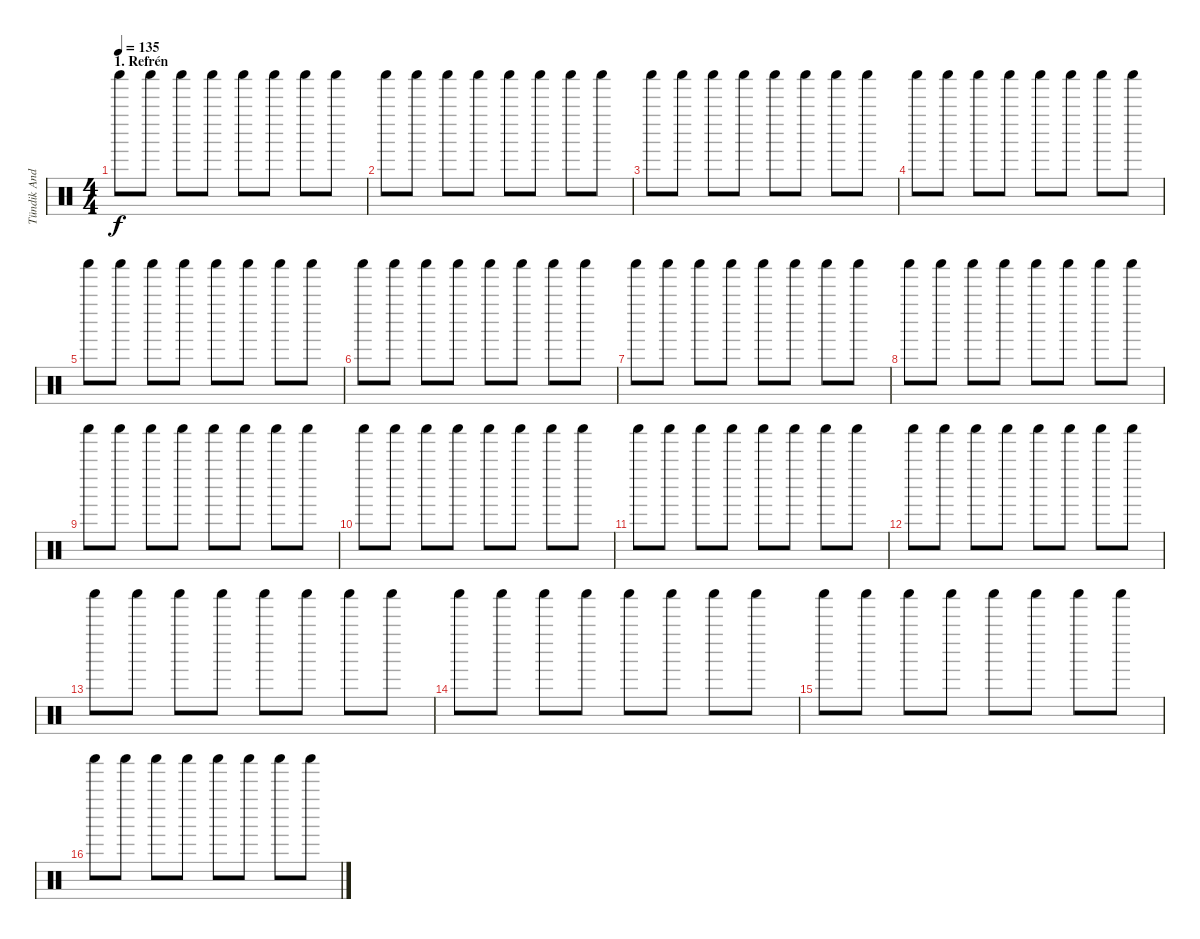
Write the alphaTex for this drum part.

\track ("Tündik András - Shaker" "Tündik And") {instrument percussion}
\staff {score}
\articulation defaults
\ts (4 4)
\section ("" "1. Refrén")
\tempo 135
\clef neutral
\ks c "Shaker (hit)".8{dy f} "Shaker (hit)".8 "Shaker (hit)".8 "Shaker (hit)".8 "Shaker (hit)".8 "Shaker (hit)".8 "Shaker (hit)".8 "Shaker (hit)".8
|
"Shaker (hit)".8 "Shaker (hit)".8 "Shaker (hit)".8 "Shaker (hit)".8 "Shaker (hit)".8 "Shaker (hit)".8 "Shaker (hit)".8 "Shaker (hit)".8 |
"Shaker (hit)".8 "Shaker (hit)".8 "Shaker (hit)".8 "Shaker (hit)".8 "Shaker (hit)".8 "Shaker (hit)".8 "Shaker (hit)".8 "Shaker (hit)".8 |
"Shaker (hit)".8 "Shaker (hit)".8 "Shaker (hit)".8 "Shaker (hit)".8 "Shaker (hit)".8 "Shaker (hit)".8 "Shaker (hit)".8 "Shaker (hit)".8 |
"Shaker (hit)".8 "Shaker (hit)".8 "Shaker (hit)".8 "Shaker (hit)".8 "Shaker (hit)".8 "Shaker (hit)".8 "Shaker (hit)".8 "Shaker (hit)".8 |
"Shaker (hit)".8 "Shaker (hit)".8 "Shaker (hit)".8 "Shaker (hit)".8 "Shaker (hit)".8 "Shaker (hit)".8 "Shaker (hit)".8 "Shaker (hit)".8 |
"Shaker (hit)".8 "Shaker (hit)".8 "Shaker (hit)".8 "Shaker (hit)".8 "Shaker (hit)".8 "Shaker (hit)".8 "Shaker (hit)".8 "Shaker (hit)".8 |
"Shaker (hit)".8 "Shaker (hit)".8 "Shaker (hit)".8 "Shaker (hit)".8 "Shaker (hit)".8 "Shaker (hit)".8 "Shaker (hit)".8 "Shaker (hit)".8 |
"Shaker (hit)".8 "Shaker (hit)".8 "Shaker (hit)".8 "Shaker (hit)".8 "Shaker (hit)".8 "Shaker (hit)".8 "Shaker (hit)".8 "Shaker (hit)".8 |
"Shaker (hit)".8 "Shaker (hit)".8 "Shaker (hit)".8 "Shaker (hit)".8 "Shaker (hit)".8 "Shaker (hit)".8 "Shaker (hit)".8 "Shaker (hit)".8 |
"Shaker (hit)".8 "Shaker (hit)".8 "Shaker (hit)".8 "Shaker (hit)".8 "Shaker (hit)".8 "Shaker (hit)".8 "Shaker (hit)".8 "Shaker (hit)".8 |
"Shaker (hit)".8 "Shaker (hit)".8 "Shaker (hit)".8 "Shaker (hit)".8 "Shaker (hit)".8 "Shaker (hit)".8 "Shaker (hit)".8 "Shaker (hit)".8 |
"Shaker (hit)".8 "Shaker (hit)".8 "Shaker (hit)".8 "Shaker (hit)".8 "Shaker (hit)".8 "Shaker (hit)".8 "Shaker (hit)".8 "Shaker (hit)".8 |
"Shaker (hit)".8 "Shaker (hit)".8 "Shaker (hit)".8 "Shaker (hit)".8 "Shaker (hit)".8 "Shaker (hit)".8 "Shaker (hit)".8 "Shaker (hit)".8 |
"Shaker (hit)".8 "Shaker (hit)".8 "Shaker (hit)".8 "Shaker (hit)".8 "Shaker (hit)".8 "Shaker (hit)".8 "Shaker (hit)".8 "Shaker (hit)".8 |
"Shaker (hit)".8 "Shaker (hit)".8 "Shaker (hit)".8 "Shaker (hit)".8 "Shaker (hit)".8 "Shaker (hit)".8 "Shaker (hit)".8 "Shaker (hit)".8
